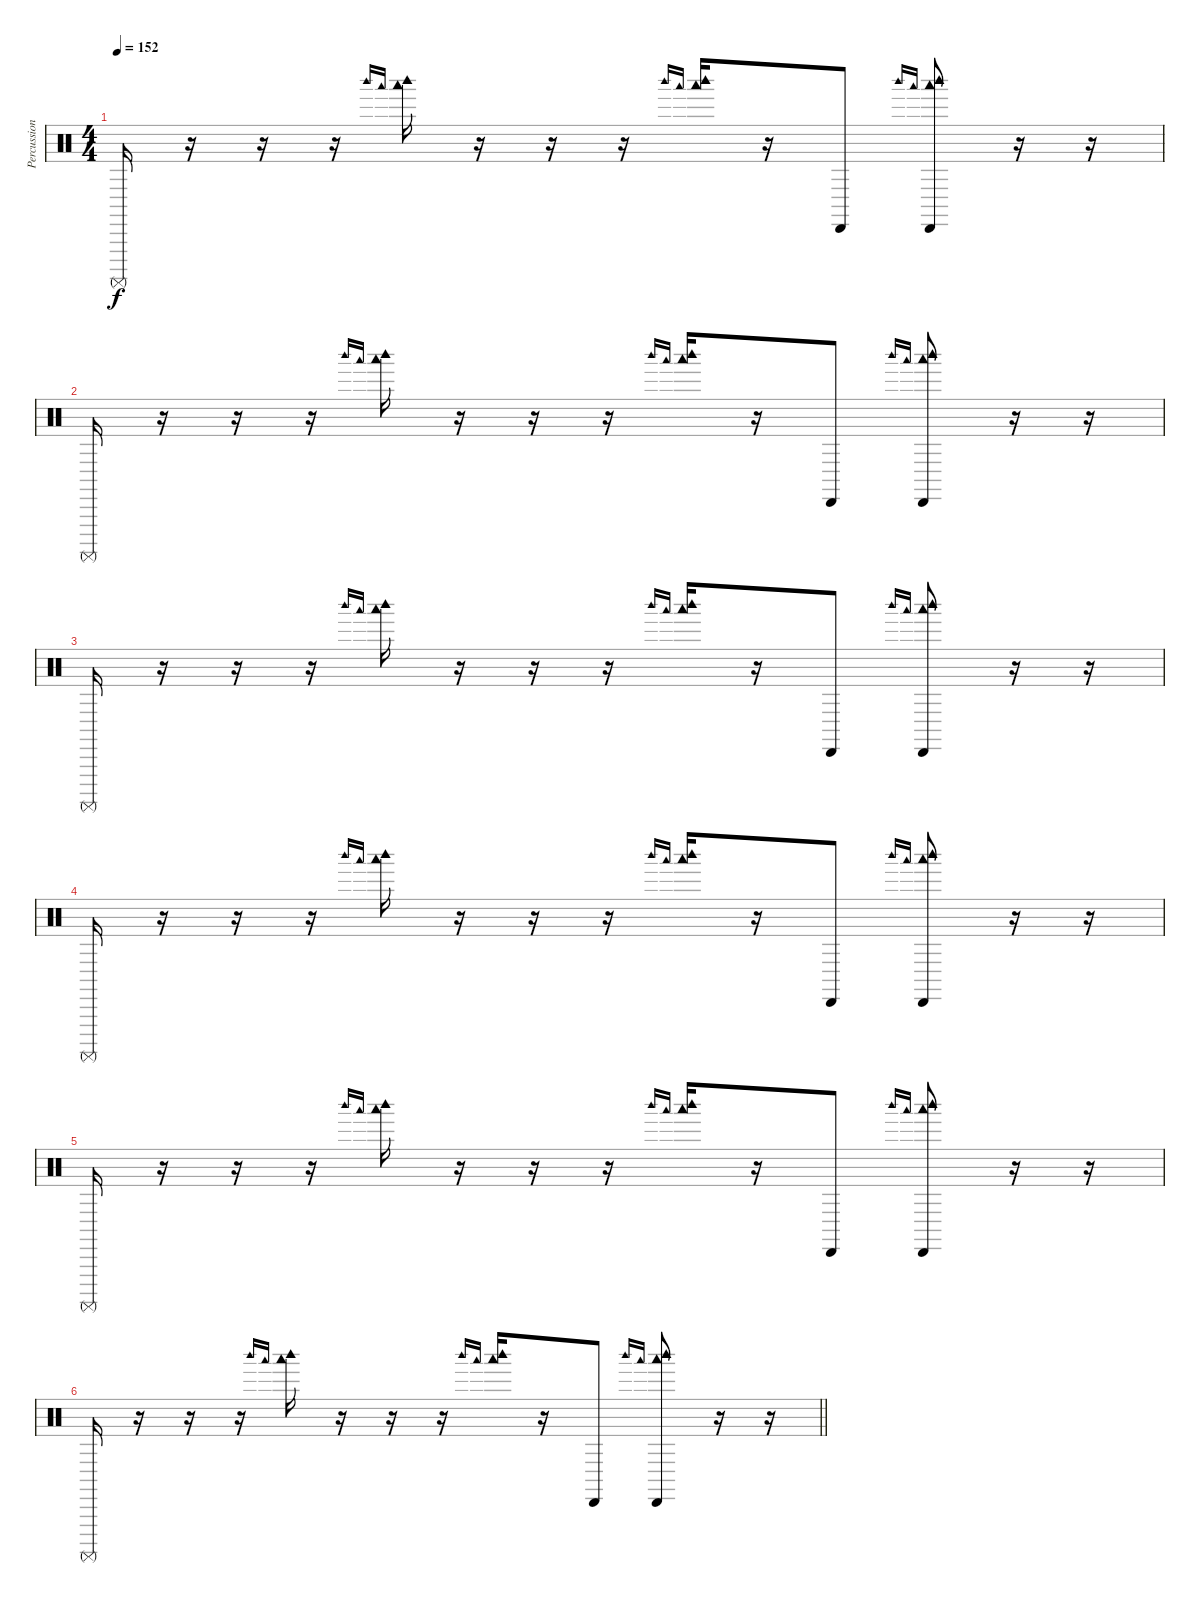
\track ("Percussion" "Percussion") {instrument percussion}
\staff {score}
\articulation defaults
\ts (4 4)
\tempo 152
\clef neutral
\ks c "Surdo (mute)".16{dy f}
r.16 r.16 r.16 "Woodblock high (hit)".16{gr onbeat} "Woodblock low (hit)".16{gr onbeat} ("Woodblock high (hit)" "Woodblock low (hit)").16 r.16 r.16 r.16 "Woodblock high (hit)".16{gr onbeat} "Woodblock low (hit)".16{gr onbeat} ("Woodblock high (hit)" "Woodblock low (hit)").16 r.16 "Cabasa (hit)".8 "Woodblock high (hit)".16{gr onbeat} "Woodblock low (hit)".16{gr onbeat} ("Cabasa (hit)" "Woodblock high (hit)" "Woodblock low (hit)").8 r.16 r.16 |
"Surdo (mute)".16 r.16 r.16 r.16 "Woodblock high (hit)".16{gr onbeat} "Woodblock low (hit)".16{gr onbeat} ("Woodblock high (hit)" "Woodblock low (hit)").16 r.16 r.16 r.16 "Woodblock high (hit)".16{gr onbeat} "Woodblock low (hit)".16{gr onbeat} ("Woodblock high (hit)" "Woodblock low (hit)").16 r.16 "Cabasa (hit)".8 "Woodblock high (hit)".16{gr onbeat} "Woodblock low (hit)".16{gr onbeat} ("Cabasa (hit)" "Woodblock high (hit)" "Woodblock low (hit)").8 r.16 r.16 |
"Surdo (mute)".16 r.16 r.16 r.16 "Woodblock high (hit)".16{gr onbeat} "Woodblock low (hit)".16{gr onbeat} ("Woodblock high (hit)" "Woodblock low (hit)").16 r.16 r.16 r.16 "Woodblock high (hit)".16{gr onbeat} "Woodblock low (hit)".16{gr onbeat} ("Woodblock high (hit)" "Woodblock low (hit)").16 r.16 "Cabasa (hit)".8 "Woodblock high (hit)".16{gr onbeat} "Woodblock low (hit)".16{gr onbeat} ("Cabasa (hit)" "Woodblock high (hit)" "Woodblock low (hit)").8 r.16 r.16 |
"Surdo (mute)".16 r.16 r.16 r.16 "Woodblock high (hit)".16{gr onbeat} "Woodblock low (hit)".16{gr onbeat} ("Woodblock high (hit)" "Woodblock low (hit)").16 r.16 r.16 r.16 "Woodblock high (hit)".16{gr onbeat} "Woodblock low (hit)".16{gr onbeat} ("Woodblock high (hit)" "Woodblock low (hit)").16 r.16 "Cabasa (hit)".8 "Woodblock high (hit)".16{gr onbeat} "Woodblock low (hit)".16{gr onbeat} ("Cabasa (hit)" "Woodblock high (hit)" "Woodblock low (hit)").8 r.16 r.16 |
"Surdo (mute)".16 r.16 r.16 r.16 "Woodblock high (hit)".16{gr onbeat} "Woodblock low (hit)".16{gr onbeat} ("Woodblock high (hit)" "Woodblock low (hit)").16 r.16 r.16 r.16 "Woodblock high (hit)".16{gr onbeat} "Woodblock low (hit)".16{gr onbeat} ("Woodblock high (hit)" "Woodblock low (hit)").16 r.16 "Cabasa (hit)".8 "Woodblock high (hit)".16{gr onbeat} "Woodblock low (hit)".16{gr onbeat} ("Cabasa (hit)" "Woodblock high (hit)" "Woodblock low (hit)").8 r.16 r.16 |
\barLineRight lightlight "Surdo (mute)".16
r.16 r.16 r.16 "Woodblock high (hit)".16{gr onbeat} "Woodblock low (hit)".16{gr onbeat} ("Woodblock high (hit)" "Woodblock low (hit)").16 r.16 r.16 r.16 "Woodblock high (hit)".16{gr onbeat} "Woodblock low (hit)".16{gr onbeat} ("Woodblock high (hit)" "Woodblock low (hit)").16 r.16 "Cabasa (hit)".8 "Woodblock high (hit)".16{gr onbeat} "Woodblock low (hit)".16{gr onbeat} ("Cabasa (hit)" "Woodblock high (hit)" "Woodblock low (hit)").8 r.16 r.16
